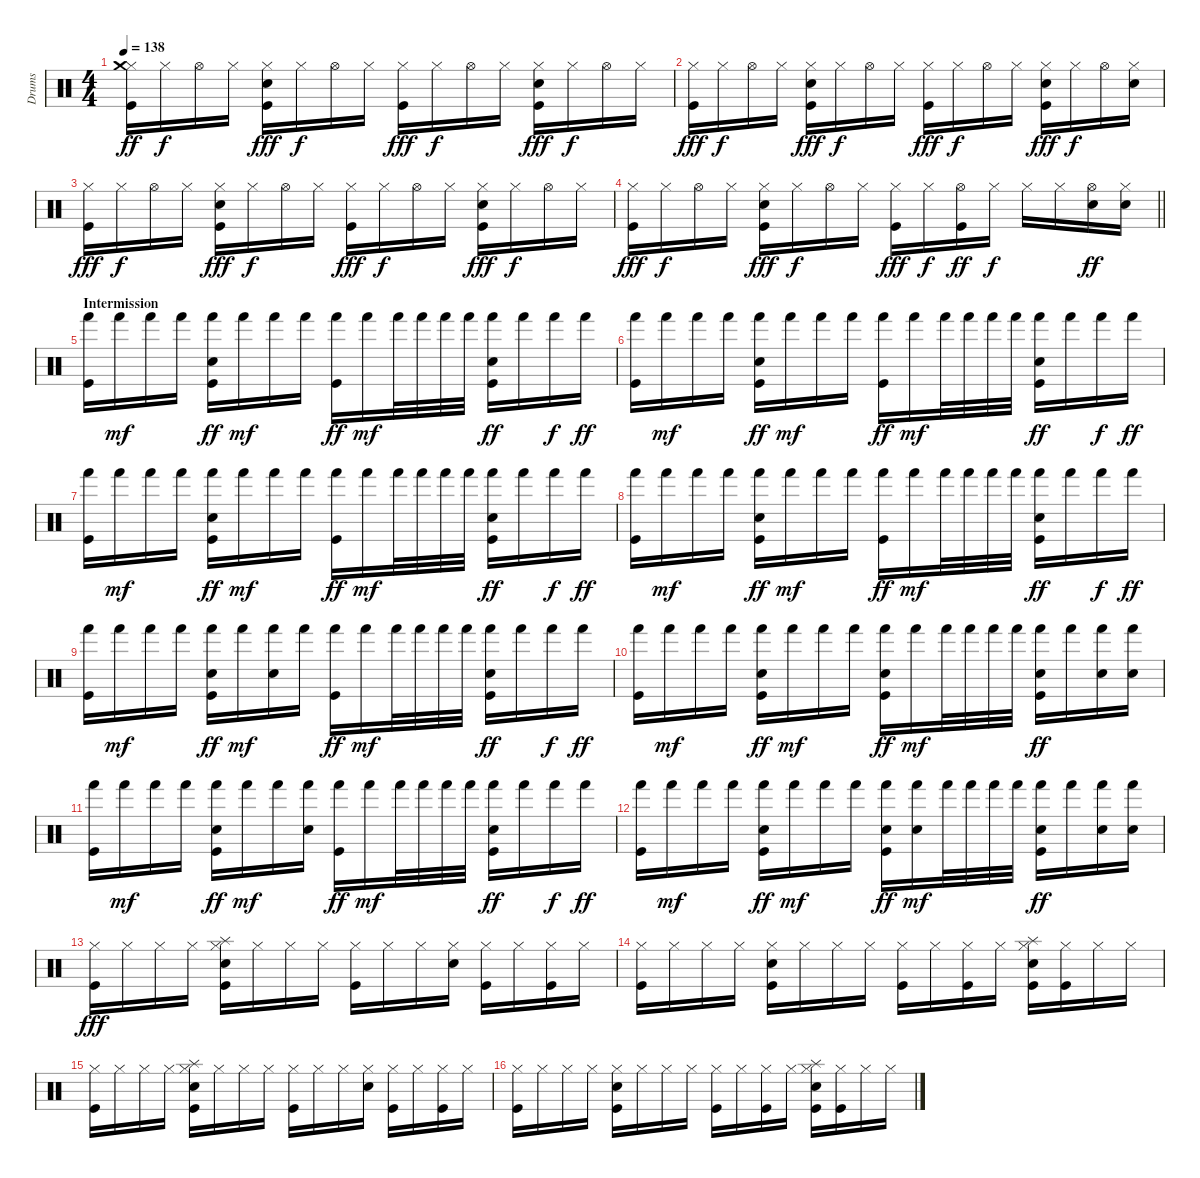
\track ("Drums" "Drums") {instrument percussion}
\staff {score}
\articulation defaults
\ts (4 4)
\tempo 138
\clef neutral
\ks c
("Kick (hit)" "Hi-Hat (closed)" "Crash medium (hit)").16{dy ff} "Hi-Hat (closed)".16{dy f} "Hi-Hat (open)".16 "Hi-Hat (closed)".16 ("Kick (hit)" "Electric Snare (hit)" "Hi-Hat (closed)").16{dy fff} "Hi-Hat (closed)".16{dy f} "Hi-Hat (open)".16 "Hi-Hat (closed)".16 ("Kick (hit)" "Hi-Hat (closed)").16{dy fff} "Hi-Hat (closed)".16{dy f} "Hi-Hat (open)".16 "Hi-Hat (closed)".16 ("Kick (hit)" "Electric Snare (hit)" "Hi-Hat (closed)").16{dy fff} "Hi-Hat (closed)".16{dy f} "Hi-Hat (open)".16 "Hi-Hat (closed)".16 |
("Kick (hit)" "Hi-Hat (closed)").16{dy fff} "Hi-Hat (closed)".16{dy f} "Hi-Hat (open)".16 "Hi-Hat (closed)".16 ("Kick (hit)" "Electric Snare (hit)" "Hi-Hat (closed)").16{dy fff} "Hi-Hat (closed)".16{dy f} "Hi-Hat (open)".16 "Hi-Hat (closed)".16 ("Kick (hit)" "Hi-Hat (closed)").16{dy fff} "Hi-Hat (closed)".16{dy f} "Hi-Hat (open)".16 "Hi-Hat (closed)".16 ("Kick (hit)" "Electric Snare (hit)" "Hi-Hat (closed)").16{dy fff} "Hi-Hat (closed)".16{dy f} "Hi-Hat (open)".16 ("Electric Snare (hit)" "Hi-Hat (closed)").16 |
("Kick (hit)" "Hi-Hat (closed)").16{dy fff} "Hi-Hat (closed)".16{dy f} "Hi-Hat (open)".16 "Hi-Hat (closed)".16 ("Kick (hit)" "Electric Snare (hit)" "Hi-Hat (closed)").16{dy fff} "Hi-Hat (closed)".16{dy f} "Hi-Hat (open)".16 "Hi-Hat (closed)".16 ("Kick (hit)" "Hi-Hat (closed)").16{dy fff} "Hi-Hat (closed)".16{dy f} "Hi-Hat (open)".16 "Hi-Hat (closed)".16 ("Kick (hit)" "Electric Snare (hit)" "Hi-Hat (closed)").16{dy fff} "Hi-Hat (closed)".16{dy f} "Hi-Hat (open)".16 "Hi-Hat (closed)".16 |
\barLineRight lightlight
("Kick (hit)" "Hi-Hat (closed)").16{dy fff} "Hi-Hat (closed)".16{dy f} "Hi-Hat (open)".16 "Hi-Hat (closed)".16 ("Kick (hit)" "Electric Snare (hit)" "Hi-Hat (closed)").16{dy fff} "Hi-Hat (closed)".16{dy f} "Hi-Hat (open)".16 "Hi-Hat (closed)".16 ("Kick (hit)" "Hi-Hat (closed)").16{dy fff} "Hi-Hat (closed)".16{dy f} ("Kick (hit)" "Hi-Hat (open)").16{dy ff} "Hi-Hat (closed)".16{dy f} "Hi-Hat (closed)".16 "Hi-Hat (closed)".16 ("Electric Snare (hit)" "Hi-Hat (open)").16{dy ff} ("Electric Snare (hit)" "Hi-Hat (closed)").16 |
\section ("" "Intermission")
("Kick (hit)" "Hand (hit)").16 "Hand (hit)".16{dy mf} "Hand (hit)".16 "Hand (hit)".16 ("Kick (hit)" "Electric Snare (hit)" "Hand (hit)").16{dy ff} "Hand (hit)".16{dy mf} "Hand (hit)".16 "Hand (hit)".16 ("Kick (hit)" "Hand (hit)").16{dy ff} "Hand (hit)".16{dy mf} "Hand (hit)".32 "Hand (hit)".32 "Hand (hit)".32 "Hand (hit)".32 ("Kick (hit)" "Electric Snare (hit)" "Hand (hit)").16{dy ff} "Hand (hit)".16 "Hand (hit)".16{dy f} "Hand (hit)".16{dy ff} |
("Kick (hit)" "Hand (hit)").16 "Hand (hit)".16{dy mf} "Hand (hit)".16 "Hand (hit)".16 ("Kick (hit)" "Electric Snare (hit)" "Hand (hit)").16{dy ff} "Hand (hit)".16{dy mf} "Hand (hit)".16 "Hand (hit)".16 ("Kick (hit)" "Hand (hit)").16{dy ff} "Hand (hit)".16{dy mf} "Hand (hit)".32 "Hand (hit)".32 "Hand (hit)".32 "Hand (hit)".32 ("Kick (hit)" "Electric Snare (hit)" "Hand (hit)").16{dy ff} "Hand (hit)".16 "Hand (hit)".16{dy f} "Hand (hit)".16{dy ff} |
("Kick (hit)" "Hand (hit)").16 "Hand (hit)".16{dy mf} "Hand (hit)".16 "Hand (hit)".16 ("Kick (hit)" "Electric Snare (hit)" "Hand (hit)").16{dy ff} "Hand (hit)".16{dy mf} "Hand (hit)".16 "Hand (hit)".16 ("Kick (hit)" "Hand (hit)").16{dy ff} "Hand (hit)".16{dy mf} "Hand (hit)".32 "Hand (hit)".32 "Hand (hit)".32 "Hand (hit)".32 ("Kick (hit)" "Electric Snare (hit)" "Hand (hit)").16{dy ff} "Hand (hit)".16 "Hand (hit)".16{dy f} "Hand (hit)".16{dy ff} |
("Kick (hit)" "Hand (hit)").16 "Hand (hit)".16{dy mf} "Hand (hit)".16 "Hand (hit)".16 ("Kick (hit)" "Electric Snare (hit)" "Hand (hit)").16{dy ff} "Hand (hit)".16{dy mf} "Hand (hit)".16 "Hand (hit)".16 ("Kick (hit)" "Hand (hit)").16{dy ff} "Hand (hit)".16{dy mf} "Hand (hit)".32 "Hand (hit)".32 "Hand (hit)".32 "Hand (hit)".32 ("Kick (hit)" "Electric Snare (hit)" "Hand (hit)").16{dy ff} "Hand (hit)".16 "Hand (hit)".16{dy f} "Hand (hit)".16{dy ff} |
("Kick (hit)" "Hand (hit)").16 "Hand (hit)".16{dy mf} "Hand (hit)".16 "Hand (hit)".16 ("Kick (hit)" "Electric Snare (hit)" "Hand (hit)").16{dy ff} "Hand (hit)".16{dy mf} ("Electric Snare (hit)" "Hand (hit)").16 "Hand (hit)".16 ("Kick (hit)" "Hand (hit)").16{dy ff} "Hand (hit)".16{dy mf} "Hand (hit)".32 "Hand (hit)".32 "Hand (hit)".32 "Hand (hit)".32 ("Kick (hit)" "Electric Snare (hit)" "Hand (hit)").16{dy ff} "Hand (hit)".16 "Hand (hit)".16{dy f} "Hand (hit)".16{dy ff} |
("Kick (hit)" "Hand (hit)").16 "Hand (hit)".16{dy mf} "Hand (hit)".16 "Hand (hit)".16 ("Kick (hit)" "Electric Snare (hit)" "Hand (hit)").16{dy ff} "Hand (hit)".16{dy mf} "Hand (hit)".16 "Hand (hit)".16 ("Kick (hit)" "Electric Snare (hit)" "Hand (hit)").16{dy ff} "Hand (hit)".16{dy mf} "Hand (hit)".32 "Hand (hit)".32 "Hand (hit)".32 "Hand (hit)".32 ("Kick (hit)" "Electric Snare (hit)" "Hand (hit)").16{dy ff} "Hand (hit)".16 ("Electric Snare (hit)" "Hand (hit)").16 ("Electric Snare (hit)" "Hand (hit)").16 |
("Kick (hit)" "Hand (hit)").16 "Hand (hit)".16{dy mf} "Hand (hit)".16 "Hand (hit)".16 ("Kick (hit)" "Electric Snare (hit)" "Hand (hit)").16{dy ff} "Hand (hit)".16{dy mf} "Hand (hit)".16 ("Electric Snare (hit)" "Hand (hit)").16 ("Kick (hit)" "Hand (hit)").16{dy ff} "Hand (hit)".16{dy mf} "Hand (hit)".32 "Hand (hit)".32 "Hand (hit)".32 "Hand (hit)".32 ("Kick (hit)" "Electric Snare (hit)" "Hand (hit)").16{dy ff} "Hand (hit)".16 "Hand (hit)".16{dy f} "Hand (hit)".16{dy ff} |
("Kick (hit)" "Hand (hit)").16 "Hand (hit)".16{dy mf} "Hand (hit)".16 "Hand (hit)".16 ("Kick (hit)" "Electric Snare (hit)" "Hand (hit)").16{dy ff} "Hand (hit)".16{dy mf} "Hand (hit)".16 "Hand (hit)".16 ("Kick (hit)" "Electric Snare (hit)" "Hand (hit)").16{dy ff} ("Electric Snare (hit)" "Hand (hit)").16{dy mf} "Hand (hit)".32 "Hand (hit)".32 "Hand (hit)".32 "Hand (hit)".32 ("Kick (hit)" "Electric Snare (hit)" "Hand (hit)").16{dy ff} "Hand (hit)".16 ("Electric Snare (hit)" "Hand (hit)").16 ("Electric Snare (hit)" "Hand (hit)").16 |
("Kick (hit)" "Hi-Hat (closed)").16{dy fff} "Hi-Hat (closed)".16 "Hi-Hat (closed)".16 "Hi-Hat (closed)".16 ("Kick (hit)" "Electric Snare (hit)" "Hi-Hat (closed)" "Splash (hit)").16 "Hi-Hat (closed)".16 "Hi-Hat (closed)".16 "Hi-Hat (closed)".16 ("Kick (hit)" "Hi-Hat (closed)").16 "Hi-Hat (closed)".16 "Hi-Hat (closed)".16 ("Electric Snare (hit)" "Hi-Hat (closed)").16 ("Kick (hit)" "Hi-Hat (closed)").16 "Hi-Hat (closed)".16 ("Kick (hit)" "Hi-Hat (closed)").16 "Hi-Hat (closed)".16 |
("Kick (hit)" "Hi-Hat (closed)").16 "Hi-Hat (closed)".16 "Hi-Hat (closed)".16 "Hi-Hat (closed)".16 ("Kick (hit)" "Electric Snare (hit)" "Hi-Hat (closed)").16 "Hi-Hat (closed)".16 "Hi-Hat (closed)".16 "Hi-Hat (closed)".16 ("Kick (hit)" "Hi-Hat (closed)").16 "Hi-Hat (closed)".16 ("Kick (hit)" "Hi-Hat (closed)").16 "Hi-Hat (closed)".16 ("Kick (hit)" "Electric Snare (hit)" "Hi-Hat (closed)" "Splash (hit)").16 ("Kick (hit)" "Hi-Hat (closed)").16 "Hi-Hat (closed)".16 "Hi-Hat (closed)".16 |
("Kick (hit)" "Hi-Hat (closed)").16 "Hi-Hat (closed)".16 "Hi-Hat (closed)".16 "Hi-Hat (closed)".16 ("Kick (hit)" "Electric Snare (hit)" "Hi-Hat (closed)" "Splash (hit)").16 "Hi-Hat (closed)".16 "Hi-Hat (closed)".16 "Hi-Hat (closed)".16 ("Kick (hit)" "Hi-Hat (closed)").16 "Hi-Hat (closed)".16 "Hi-Hat (closed)".16 ("Electric Snare (hit)" "Hi-Hat (closed)").16 ("Kick (hit)" "Hi-Hat (closed)").16 "Hi-Hat (closed)".16 ("Kick (hit)" "Hi-Hat (closed)").16 "Hi-Hat (closed)".16 |
("Kick (hit)" "Hi-Hat (closed)").16 "Hi-Hat (closed)".16 "Hi-Hat (closed)".16 "Hi-Hat (closed)".16 ("Kick (hit)" "Electric Snare (hit)" "Hi-Hat (closed)").16 "Hi-Hat (closed)".16 "Hi-Hat (closed)".16 "Hi-Hat (closed)".16 ("Kick (hit)" "Hi-Hat (closed)").16 "Hi-Hat (closed)".16 ("Kick (hit)" "Hi-Hat (closed)").16 "Hi-Hat (closed)".16 ("Kick (hit)" "Electric Snare (hit)" "Hi-Hat (closed)" "Splash (hit)").16 ("Kick (hit)" "Hi-Hat (closed)").16 "Hi-Hat (closed)".16 "Hi-Hat (closed)".16
